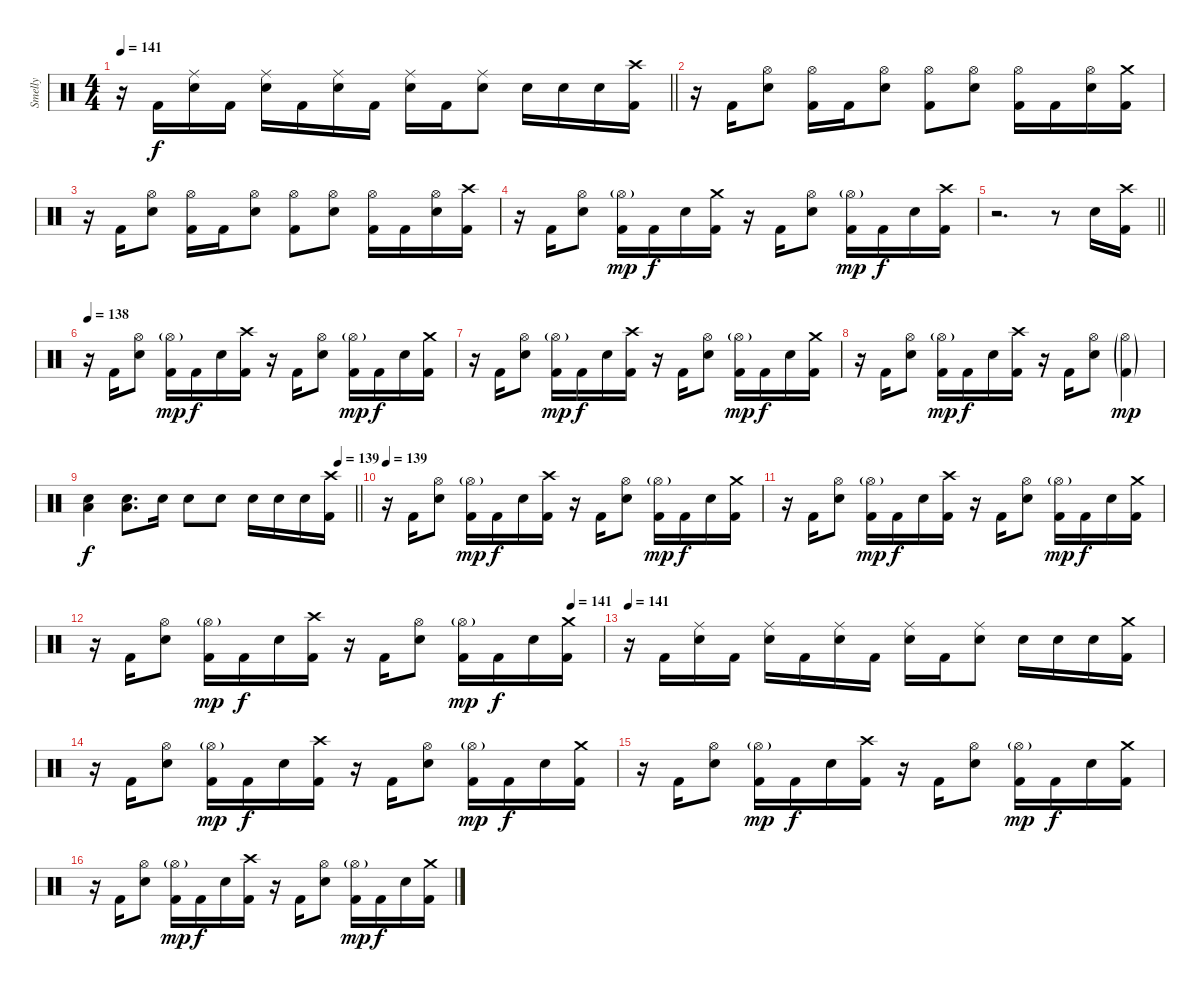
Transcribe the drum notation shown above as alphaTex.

\track ("Smelly" "Smelly") {instrument percussion}
\staff {score}
\articulation defaults
\ts (4 4)
\tempo 141
\clef neutral
\barLineRight lightlight
\ks c
r.16{dy f} "Kick (hit) 2".16 ("Ride (middle)" "Electric Snare (hit)").16 "Kick (hit) 2".16 ("Ride (middle)" "Electric Snare (hit)").16 "Kick (hit) 2".16 ("Ride (middle)" "Electric Snare (hit)").16 "Kick (hit) 2".16 ("Ride (middle)" "Electric Snare (hit)").16 "Kick (hit) 2".16 ("Ride (middle)" "Electric Snare (hit)").8 "Electric Snare (hit)".16 "Electric Snare (hit)".16 "Electric Snare (hit)".16 ("Crash high (hit)" "Kick (hit) 2").16 |
\section ("" "")
r.16 "Kick (hit) 2".16 ("Hi-Hat (open)" "Electric Snare (hit)").8 ("Hi-Hat (open)" "Kick (hit) 2").16 "Kick (hit) 2".16 ("Hi-Hat (open)" "Electric Snare (hit)").8 ("Hi-Hat (open)" "Kick (hit) 2").8 ("Hi-Hat (open)" "Electric Snare (hit)").8 ("Hi-Hat (open)" "Kick (hit) 2").16 "Kick (hit) 2".16 ("Hi-Hat (open)" "Electric Snare (hit)").16 ("Crash medium (hit)" "Kick (hit) 2").16 |
r.16 "Kick (hit) 2".16 ("Hi-Hat (open)" "Electric Snare (hit)").8 ("Hi-Hat (open)" "Kick (hit) 2").16 "Kick (hit) 2".16 ("Hi-Hat (open)" "Electric Snare (hit)").8 ("Hi-Hat (open)" "Kick (hit) 2").8 ("Hi-Hat (open)" "Electric Snare (hit)").8 ("Hi-Hat (open)" "Kick (hit) 2").16 "Kick (hit) 2".16 ("Hi-Hat (open)" "Electric Snare (hit)").16 ("Crash high (hit)" "Kick (hit) 2").16 |
r.16 "Kick (hit) 2".16 ("Hi-Hat (open)" "Electric Snare (hit)").8 ("Hi-Hat (open)"{g} "Kick (hit) 2").16{dy mp} "Kick (hit) 2".16{dy f} "Electric Snare (hit)".16 ("Crash medium (hit)" "Kick (hit) 2").16 r.16 "Kick (hit) 2".16 ("Hi-Hat (open)" "Electric Snare (hit)").8 ("Hi-Hat (open)"{g} "Kick (hit) 2").16{dy mp} "Kick (hit) 2".16{dy f} "Electric Snare (hit)".16 ("Crash high (hit)" "Kick (hit) 2").16 |
\barLineRight lightlight
r.2{d} r.8 "Electric Snare (hit)".16 ("Crash high (hit)" "Kick (hit) 2").16 |
\section ("" "")
\tempo 138
r.16 "Kick (hit) 2".16 ("Hi-Hat (open)" "Electric Snare (hit)").8 ("Hi-Hat (open)"{g} "Kick (hit) 2").16{dy mp} "Kick (hit) 2".16{dy f} "Electric Snare (hit)".16 ("Crash high (hit)" "Kick (hit) 2").16 r.16 "Kick (hit) 2".16 ("Hi-Hat (open)" "Electric Snare (hit)").8 ("Hi-Hat (open)"{g} "Kick (hit) 2").16{dy mp} "Kick (hit) 2".16{dy f} "Electric Snare (hit)".16 ("Crash medium (hit)" "Kick (hit) 2").16 |
r.16 "Kick (hit) 2".16 ("Hi-Hat (open)" "Electric Snare (hit)").8 ("Hi-Hat (open)"{g} "Kick (hit) 2").16{dy mp} "Kick (hit) 2".16{dy f} "Electric Snare (hit)".16 ("Crash high (hit)" "Kick (hit) 2").16 r.16 "Kick (hit) 2".16 ("Hi-Hat (open)" "Electric Snare (hit)").8 ("Hi-Hat (open)"{g} "Kick (hit) 2").16{dy mp} "Kick (hit) 2".16{dy f} "Electric Snare (hit)".16 ("Crash medium (hit)" "Kick (hit) 2").16 |
r.16 "Kick (hit) 2".16 ("Hi-Hat (open)" "Electric Snare (hit)").8 ("Hi-Hat (open)"{g} "Kick (hit) 2").16{dy mp} "Kick (hit) 2".16{dy f} "Electric Snare (hit)".16 ("Crash high (hit)" "Kick (hit) 2").16 r.16 "Kick (hit) 2".16 ("Hi-Hat (open)" "Electric Snare (hit)").8 ("Hi-Hat (open)"{g} "Kick (hit) 2"{g}).4{dy mp} |
\tempo (139 0.9375)
\barLineRight lightlight
("Electric Snare (hit)" "Low Floor Tom (hit)").4{dy f} ("Electric Snare (hit)" "Low Floor Tom (hit)").8{d} "Electric Snare (hit)".16 "Electric Snare (hit)".8 "Electric Snare (hit)".8 "Electric Snare (hit)".16 "Electric Snare (hit)".16 "Electric Snare (hit)".16 ("Crash high (hit)" "Kick (hit) 2").16 |
\section ("" "")
\tempo 139
r.16 "Kick (hit) 2".16 ("Hi-Hat (open)" "Electric Snare (hit)").8 ("Hi-Hat (open)"{g} "Kick (hit) 2").16{dy mp} "Kick (hit) 2".16{dy f} "Electric Snare (hit)".16 ("Crash high (hit)" "Kick (hit) 2").16 r.16 "Kick (hit) 2".16 ("Hi-Hat (open)" "Electric Snare (hit)").8 ("Hi-Hat (open)"{g} "Kick (hit) 2").16{dy mp} "Kick (hit) 2".16{dy f} "Electric Snare (hit)".16 ("Crash medium (hit)" "Kick (hit) 2").16 |
r.16 "Kick (hit) 2".16 ("Hi-Hat (open)" "Electric Snare (hit)").8 ("Hi-Hat (open)"{g} "Kick (hit) 2").16{dy mp} "Kick (hit) 2".16{dy f} "Electric Snare (hit)".16 ("Crash high (hit)" "Kick (hit) 2").16 r.16 "Kick (hit) 2".16 ("Hi-Hat (open)" "Electric Snare (hit)").8 ("Hi-Hat (open)"{g} "Kick (hit) 2").16{dy mp} "Kick (hit) 2".16{dy f} "Electric Snare (hit)".16 ("Crash medium (hit)" "Kick (hit) 2").16 |
\tempo (141 0.9375)
r.16 "Kick (hit) 2".16 ("Hi-Hat (open)" "Electric Snare (hit)").8 ("Hi-Hat (open)"{g} "Kick (hit) 2").16{dy mp} "Kick (hit) 2".16{dy f} "Electric Snare (hit)".16 ("Crash high (hit)" "Kick (hit) 2").16 r.16 "Kick (hit) 2".16 ("Hi-Hat (open)" "Electric Snare (hit)").8 ("Hi-Hat (open)"{g} "Kick (hit) 2").16{dy mp} "Kick (hit) 2".16{dy f} "Electric Snare (hit)".16 ("Crash medium (hit)" "Kick (hit) 2").16 |
\tempo 141
r.16 "Kick (hit) 2".16 ("Ride (middle)" "Electric Snare (hit)").16 "Kick (hit) 2".16 ("Ride (middle)" "Electric Snare (hit)").16 "Kick (hit) 2".16 ("Ride (middle)" "Electric Snare (hit)").16 "Kick (hit) 2".16 ("Ride (middle)" "Electric Snare (hit)").16 "Kick (hit) 2".16 ("Ride (middle)" "Electric Snare (hit)").8 "Electric Snare (hit)".16 "Electric Snare (hit)".16 "Electric Snare (hit)".16 ("Crash medium (hit)" "Kick (hit) 2").16 |
r.16 "Kick (hit) 2".16 ("Hi-Hat (open)" "Electric Snare (hit)").8 ("Hi-Hat (open)"{g} "Kick (hit) 2").16{dy mp} "Kick (hit) 2".16{dy f} "Electric Snare (hit)".16 ("Crash high (hit)" "Kick (hit) 2").16 r.16 "Kick (hit) 2".16 ("Hi-Hat (open)" "Electric Snare (hit)").8 ("Hi-Hat (open)"{g} "Kick (hit) 2").16{dy mp} "Kick (hit) 2".16{dy f} "Electric Snare (hit)".16 ("Crash medium (hit)" "Kick (hit) 2").16 |
r.16 "Kick (hit) 2".16 ("Hi-Hat (open)" "Electric Snare (hit)").8 ("Hi-Hat (open)"{g} "Kick (hit) 2").16{dy mp} "Kick (hit) 2".16{dy f} "Electric Snare (hit)".16 ("Crash high (hit)" "Kick (hit) 2").16 r.16 "Kick (hit) 2".16 ("Hi-Hat (open)" "Electric Snare (hit)").8 ("Hi-Hat (open)"{g} "Kick (hit) 2").16{dy mp} "Kick (hit) 2".16{dy f} "Electric Snare (hit)".16 ("Crash medium (hit)" "Kick (hit) 2").16 |
r.16 "Kick (hit) 2".16 ("Hi-Hat (open)" "Electric Snare (hit)").8 ("Hi-Hat (open)"{g} "Kick (hit) 2").16{dy mp} "Kick (hit) 2".16{dy f} "Electric Snare (hit)".16 ("Crash high (hit)" "Kick (hit) 2").16 r.16 "Kick (hit) 2".16 ("Hi-Hat (open)" "Electric Snare (hit)").8 ("Hi-Hat (open)"{g} "Kick (hit) 2").16{dy mp} "Kick (hit) 2".16{dy f} "Electric Snare (hit)".16 ("Crash medium (hit)" "Kick (hit) 2").16
